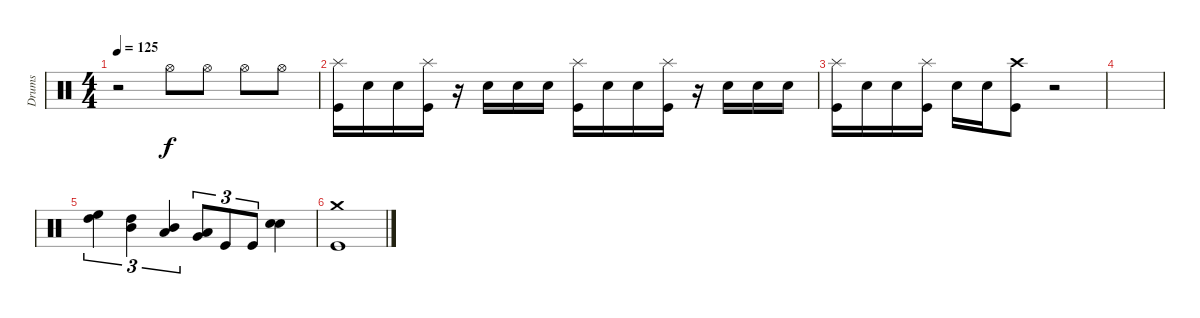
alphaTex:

\track ("Drums" "Drums") {instrument percussion}
\staff {score}
\articulation defaults
\ts (4 4)
\tempo 125
\clef neutral
\ks c
r.2{dy f} "Hi-Hat (open)".8 "Hi-Hat (open)".8 "Hi-Hat (open)".8 "Hi-Hat (open)".8 |
("Splash (hit)" "Kick (hit)").16 "Snare (hit) 2".16 "Snare (hit) 2".16 ("Splash (hit)" "Kick (hit)").16 r.16 "Snare (hit) 2".16 "Snare (hit) 2".16 "Snare (hit) 2".16 ("Splash (hit)" "Kick (hit)").16 "Snare (hit) 2".16 "Snare (hit) 2".16 ("Splash (hit)" "Kick (hit)").16 r.16 "Snare (hit) 2".16 "Snare (hit) 2".16 "Snare (hit) 2".16 |
("Splash (hit)" "Kick (hit)").16 "Snare (hit) 2".16 "Snare (hit) 2".16 ("Splash (hit)" "Kick (hit)").16 "Snare (hit) 2".16 "Snare (hit) 2".16 ("Crash high (hit)" "Kick (hit)").8 r.2 |
|
("High Floor Tom (hit)" "High Tom (hit)").4{tu (3 2)} ("High Tom (hit)" "Mid Tom (hit)").4{tu (3 2)} ("Mid Tom (hit)" "Low Tom (hit)").4{tu (3 2)} ("Low Tom (hit)" "Very Low Tom (hit)").8{tu (3 2)} "Kick (hit)".8{tu (3 2)} "Kick (hit)".8{tu (3 2)} ("Snare (hit) 2" "Snare (hit) 2").4 |
("Crash medium (hit)" "Kick (hit)").1
